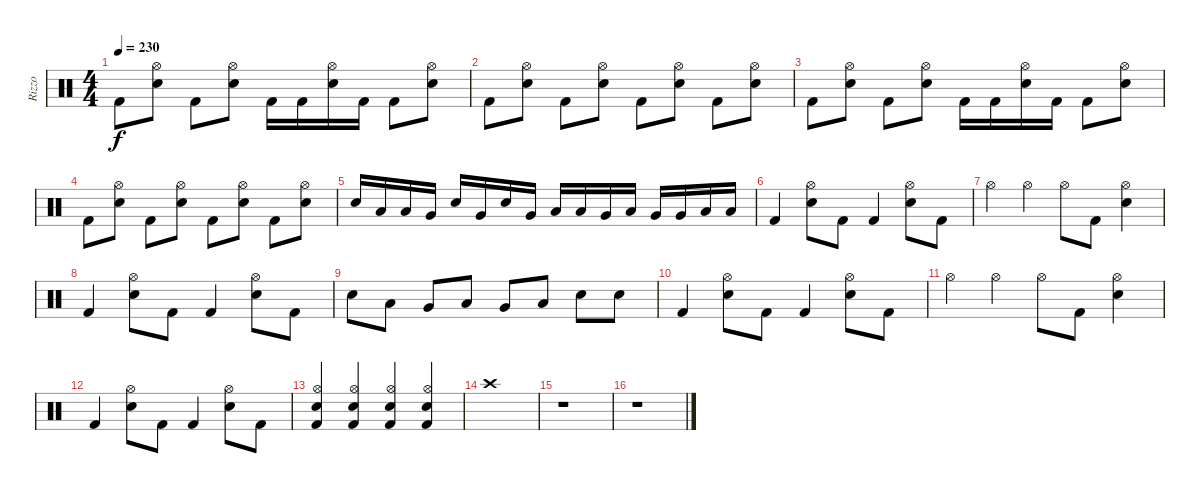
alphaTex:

\track ("Rizzo" "Rizzo") {instrument percussion}
\staff {score}
\articulation defaults
\ts (4 4)
\tempo 230
\clef neutral
\ks c "Kick (hit) 2".8{dy f}
("Hi-Hat (open)" "Snare (hit) 2").8 "Kick (hit) 2".8 ("Hi-Hat (open)" "Snare (hit) 2").8 "Kick (hit) 2".16 "Kick (hit) 2".16 ("Hi-Hat (open)" "Snare (hit) 2").16 "Kick (hit) 2".16 "Kick (hit) 2".8 ("Hi-Hat (open)" "Snare (hit) 2").8 |
"Kick (hit) 2".8 ("Hi-Hat (open)" "Snare (hit) 2").8 "Kick (hit) 2".8 ("Hi-Hat (open)" "Snare (hit) 2").8 "Kick (hit) 2".8 ("Hi-Hat (open)" "Snare (hit) 2").8 "Kick (hit) 2".8 ("Hi-Hat (open)" "Snare (hit) 2").8 |
"Kick (hit) 2".8 ("Hi-Hat (open)" "Snare (hit) 2").8 "Kick (hit) 2".8 ("Hi-Hat (open)" "Snare (hit) 2").8 "Kick (hit) 2".16 "Kick (hit) 2".16 ("Hi-Hat (open)" "Snare (hit) 2").16 "Kick (hit) 2".16 "Kick (hit) 2".8 ("Hi-Hat (open)" "Snare (hit) 2").8 |
"Kick (hit) 2".8 ("Hi-Hat (open)" "Snare (hit) 2").8 "Kick (hit) 2".8 ("Hi-Hat (open)" "Snare (hit) 2").8 "Kick (hit) 2".8 ("Hi-Hat (open)" "Snare (hit) 2").8 "Kick (hit) 2".8 ("Hi-Hat (open)" "Snare (hit) 2").8 |
"Snare (hit) 2".16 "Low Tom (hit)".16 "Low Tom (hit)".16 "Very Low Tom (hit)".16 "Snare (hit) 2".16 "Very Low Tom (hit)".16 "Snare (hit) 2".16 "Very Low Tom (hit)".16 "Low Tom (hit)".16 "Low Tom (hit)".16 "Very Low Tom (hit)".16 "Low Tom (hit)".16 "Very Low Tom (hit)".16 "Very Low Tom (hit)".16 "Low Floor Tom (hit)".16 "Low Floor Tom (hit)".16 |
"Kick (hit) 2".4 ("Hi-Hat (open)" "Snare (hit) 2").8 "Kick (hit) 2".8 "Kick (hit) 2".4 ("Hi-Hat (open)" "Snare (hit) 2").8 "Kick (hit) 2".8 |
"Hi-Hat (open)".4 "Hi-Hat (open)".4 "Hi-Hat (open)".8 "Kick (hit) 2".8 ("Hi-Hat (open)" "Snare (hit) 2").4 |
"Kick (hit) 2".4 ("Hi-Hat (open)" "Snare (hit) 2").8 "Kick (hit) 2".8 "Kick (hit) 2".4 ("Hi-Hat (open)" "Snare (hit) 2").8 "Kick (hit) 2".8 |
"Snare (hit) 2".8 "Low Tom (hit)".8 "Very Low Tom (hit)".8 "Low Tom (hit)".8 "Very Low Tom (hit)".8 "Low Floor Tom (hit)".8 "Snare (hit) 2".8 "Snare (hit) 2".8 |
"Kick (hit) 2".4 ("Hi-Hat (open)" "Snare (hit) 2").8 "Kick (hit) 2".8 "Kick (hit) 2".4 ("Hi-Hat (open)" "Snare (hit) 2").8 "Kick (hit) 2".8 |
"Hi-Hat (open)".4 "Hi-Hat (open)".4 "Hi-Hat (open)".8 "Kick (hit) 2".8 ("Hi-Hat (open)" "Snare (hit) 2").4 |
"Kick (hit) 2".4 ("Hi-Hat (open)" "Snare (hit) 2").8 "Kick (hit) 2".8 "Kick (hit) 2".4 ("Hi-Hat (open)" "Snare (hit) 2").8 "Kick (hit) 2".8 |
("Hi-Hat (open)" "Snare (hit) 2" "Kick (hit) 2").4 ("Hi-Hat (open)" "Snare (hit) 2" "Kick (hit) 2").4 ("Hi-Hat (open)" "Snare (hit) 2" "Kick (hit) 2").4 ("Hi-Hat (open)" "Snare (hit) 2" "Kick (hit) 2").4 |
"Crash high (hit)".1 |
r.1 |
r.1
